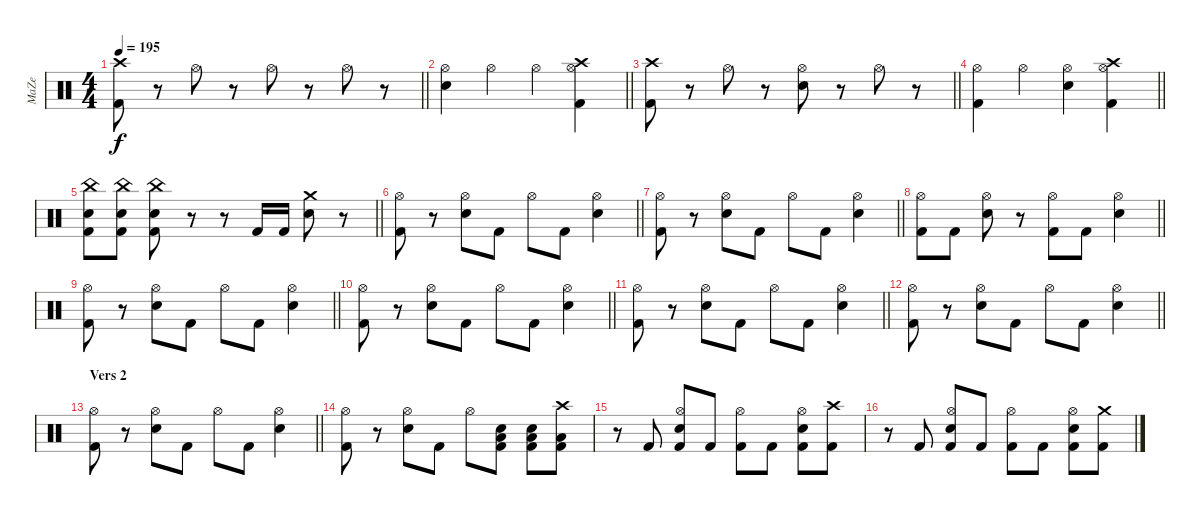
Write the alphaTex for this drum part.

\track ("MaZe" "MaZe") {instrument percussion}
\staff {score}
\articulation defaults
\ts (4 4)
\tempo 195
\clef neutral
\barLineRight lightlight
\ks c
("Crash high (hit)" "Kick (hit) 2").8{dy f} r.8 "Hi-Hat (open)".8 r.8 "Hi-Hat (open)".8 r.8 "Hi-Hat (open)".8 r.8 |
\barLineRight lightlight
("Snare (hit) 2" "Hi-Hat (open)").4 "Hi-Hat (open)".4 "Hi-Hat (open)".4 ("Crash high (hit)" "Hi-Hat (open)" "Kick (hit) 2").4 |
\barLineRight lightlight
("Crash high (hit)" "Kick (hit) 2").8 r.8 "Hi-Hat (open)".8 r.8 ("Snare (hit) 2" "Hi-Hat (open)").8 r.8 "Hi-Hat (open)".8 r.8 |
\barLineRight lightlight
("Hi-Hat (open)" "Kick (hit) 2").4 "Hi-Hat (open)".4 ("Snare (hit) 2" "Hi-Hat (open)").4 ("Crash high (hit)" "Hi-Hat (open)" "Kick (hit) 2").4 |
\barLineRight lightlight
("China (hit)" "Snare (hit) 2" "Kick (hit) 2").8 ("China (hit)" "Snare (hit) 2" "Kick (hit) 2").8 ("China (hit)" "Snare (hit) 2" "Kick (hit) 2").8 r.8 r.8 "Kick (hit) 2".16 "Kick (hit) 2".16 ("Crash medium (hit)" "Snare (hit) 2").8 r.8 |
\barLineRight lightlight
("Hi-Hat (open)" "Kick (hit) 2").8 r.8 ("Snare (hit) 2" "Hi-Hat (open)").8 "Kick (hit) 2".8 "Hi-Hat (open)".8 "Kick (hit) 2".8 ("Snare (hit) 2" "Hi-Hat (open)").4 |
\barLineRight lightlight
("Hi-Hat (open)" "Kick (hit) 2").8 r.8 ("Snare (hit) 2" "Hi-Hat (open)").8 "Kick (hit) 2".8 "Hi-Hat (open)".8 "Kick (hit) 2".8 ("Snare (hit) 2" "Hi-Hat (open)").4 |
\barLineRight lightlight
("Hi-Hat (open)" "Kick (hit) 2").8 "Kick (hit) 2".8 ("Snare (hit) 2" "Hi-Hat (open)").8 r.8 ("Hi-Hat (open)" "Kick (hit) 2").8 "Kick (hit) 2".8 ("Snare (hit) 2" "Hi-Hat (open)").4 |
\barLineRight lightlight
("Hi-Hat (open)" "Kick (hit) 2").8 r.8 ("Snare (hit) 2" "Hi-Hat (open)").8 "Kick (hit) 2".8 "Hi-Hat (open)".8 "Kick (hit) 2".8 ("Snare (hit) 2" "Hi-Hat (open)").4 |
\barLineRight lightlight
("Hi-Hat (open)" "Kick (hit) 2").8 r.8 ("Snare (hit) 2" "Hi-Hat (open)").8 "Kick (hit) 2".8 "Hi-Hat (open)".8 "Kick (hit) 2".8 ("Snare (hit) 2" "Hi-Hat (open)").4 |
\barLineRight lightlight
("Hi-Hat (open)" "Kick (hit) 2").8 r.8 ("Snare (hit) 2" "Hi-Hat (open)").8 "Kick (hit) 2".8 "Hi-Hat (open)".8 "Kick (hit) 2".8 ("Snare (hit) 2" "Hi-Hat (open)").4 |
\barLineRight lightlight
("Hi-Hat (open)" "Kick (hit) 2").8 r.8 ("Snare (hit) 2" "Hi-Hat (open)").8 "Kick (hit) 2".8 "Hi-Hat (open)".8 "Kick (hit) 2".8 ("Snare (hit) 2" "Hi-Hat (open)").4 |
\section ("" "Vers 2")
\barLineRight lightlight
("Hi-Hat (open)" "Kick (hit) 2").8 r.8 ("Snare (hit) 2" "Hi-Hat (open)").8 "Kick (hit) 2".8 "Hi-Hat (open)".8 "Kick (hit) 2".8 ("Snare (hit) 2" "Hi-Hat (open)").4 |
("Hi-Hat (open)" "Kick (hit) 2").8 r.8 ("Snare (hit) 2" "Hi-Hat (open)").8 "Kick (hit) 2".8 "Hi-Hat (open)".8 ("Snare (hit) 2" "Low Tom (hit)" "Kick (hit) 2").8 ("Snare (hit) 2" "Low Tom (hit)" "Kick (hit) 2").8 ("Crash high (hit)" "Low Floor Tom (hit)" "Kick (hit) 2").8 |
r.8 "Kick (hit) 2".8 ("Snare (hit) 2" "Hi-Hat (open)" "Kick (hit) 2").8 "Kick (hit) 2".8 ("Hi-Hat (open)" "Kick (hit) 2").8 "Kick (hit) 2".8 ("Snare (hit) 2" "Hi-Hat (open)" "Kick (hit) 2").8 ("Crash high (hit)" "Kick (hit) 2").8 |
r.8 "Kick (hit) 2".8 ("Snare (hit) 2" "Hi-Hat (open)" "Kick (hit) 2").8 "Kick (hit) 2".8 ("Hi-Hat (open)" "Kick (hit) 2").8 "Kick (hit) 2".8 ("Snare (hit) 2" "Hi-Hat (open)" "Kick (hit) 2").8 ("Crash medium (hit)" "Kick (hit) 2").8
